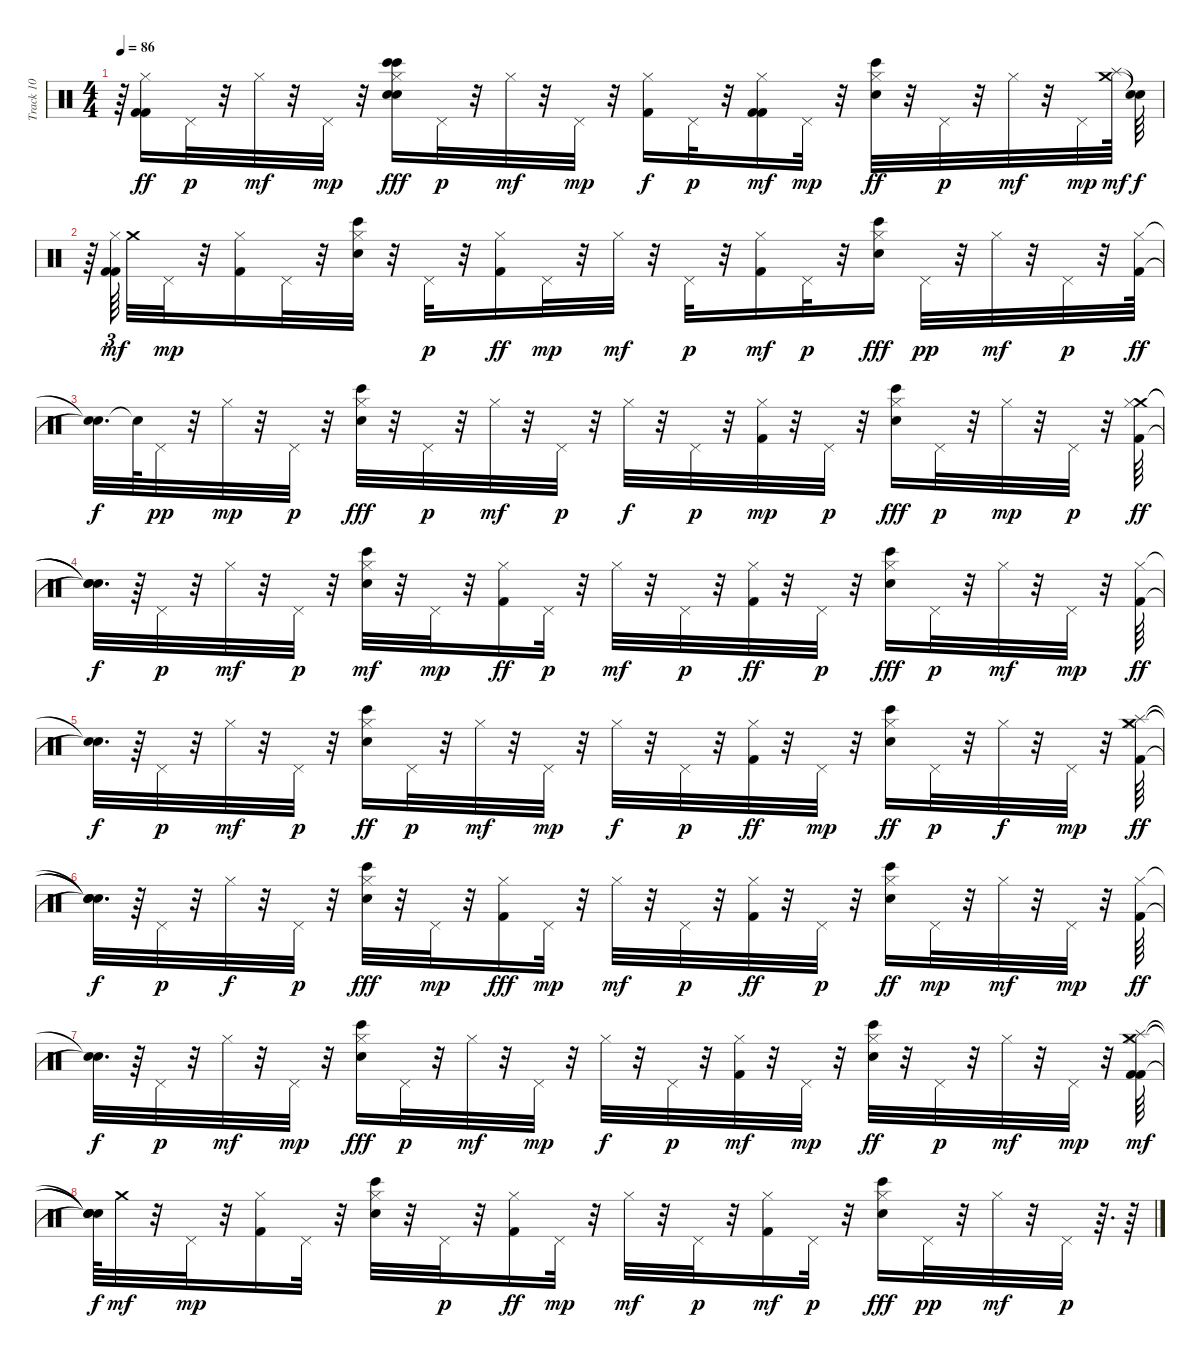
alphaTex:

\track ("Track 10" "Track 10") {instrument percussion}
\staff {score}
\articulation defaults
\ts (4 4)
\tempo 86
\clef neutral
\ks c
r.64{dy p} ("Hi-Hat (closed)" "Kick (hit) 2" "Kick (hit) 2").16{dy ff} "Pedal Hi-Hat (hit)".32{dy p} r.32 "Hi-Hat (closed)".32{dy mf} r.32 "Pedal Hi-Hat (hit)".32{dy mp} r.32 ("Hi-Hat (closed)" "Bongo High (hit)" "Electric Snare (hit)" "Electric Snare (hit)" "Bongo High (hit)").16{dy fff} "Pedal Hi-Hat (hit)".32{dy p} r.32 "Hi-Hat (closed)".32{dy mf} r.32 "Pedal Hi-Hat (hit)".32{dy mp} r.32 ("Hi-Hat (closed)" "Kick (hit) 2").16{dy f} "Pedal Hi-Hat (hit)".32{dy p} r.32 ("Hi-Hat (closed)" "Kick (hit) 2" "Kick (hit) 2").16{dy mf} "Pedal Hi-Hat (hit)".32{dy mp} r.32 ("Hi-Hat (closed)" "Electric Snare (hit)" "Bongo High (hit)").32{dy ff} r.32 "Pedal Hi-Hat (hit)".32{dy p} r.32 "Hi-Hat (closed)".32{dy mf} r.32 "Pedal Hi-Hat (hit)".32{dy mp} ("Splash (hit)" "Crash medium (hit)").64{dy mf} ("Snare (hit)"{t} "Snare (hit)"{t}).64{dy f} |
r.64 ("Hi-Hat (closed)" "Kick (hit) 2" "Kick (hit) 2").64{tu (3 2) dy mf beam splitsecondary} "Crash medium (hit)".32 "Pedal Hi-Hat (hit)".32{dy mp} r.32 ("Hi-Hat (closed)" "Kick (hit) 2").16 "Pedal Hi-Hat (hit)".32 r.32 ("Hi-Hat (closed)" "Electric Snare (hit)" "Bongo High (hit)").32 r.32 "Pedal Hi-Hat (hit)".32{dy p} r.32 ("Hi-Hat (closed)" "Kick (hit) 2").16{dy ff} "Pedal Hi-Hat (hit)".32{dy mp} r.32 "Hi-Hat (closed)".32{dy mf} r.32 "Pedal Hi-Hat (hit)".32{dy p} r.32 ("Hi-Hat (closed)" "Kick (hit) 2").16{dy mf} "Pedal Hi-Hat (hit)".32{dy p} r.32 ("Hi-Hat (closed)" "Electric Snare (hit)" "Bongo High (hit)").16{dy fff} "Pedal Hi-Hat (hit)".32{dy pp} r.32 "Hi-Hat (closed)".32{dy mf} r.32 "Pedal Hi-Hat (hit)".32{dy p} r.32 ("Hi-Hat (closed)" "Kick (hit) 2").64{dy ff} |
("Snare (hit)"{t} "Snare (hit)"{t}).32{d dy f} "Snare (hit)"{t}.64 "Pedal Hi-Hat (hit)".32{dy pp} r.32 "Hi-Hat (closed)".32{dy mp} r.32 "Pedal Hi-Hat (hit)".32{dy p} r.32 ("Hi-Hat (closed)" "Electric Snare (hit)" "Bongo High (hit)").32{dy fff} r.32 "Pedal Hi-Hat (hit)".32{dy p} r.32 "Hi-Hat (closed)".32{dy mf} r.32 "Pedal Hi-Hat (hit)".32{dy p} r.32 "Hi-Hat (closed)".32{dy f} r.32 "Pedal Hi-Hat (hit)".32{dy p} r.32 ("Hi-Hat (closed)" "Kick (hit) 2").32{dy mp} r.32 "Pedal Hi-Hat (hit)".32{dy p} r.32 ("Hi-Hat (closed)" "Electric Snare (hit)" "Bongo High (hit)").16{dy fff} "Pedal Hi-Hat (hit)".32{dy p} r.32 "Hi-Hat (closed)".32{dy mp} r.32 "Pedal Hi-Hat (hit)".32{dy p} r.32 ("Crash medium (hit)" "Hi-Hat (closed)" "Kick (hit) 2").64{dy ff} |
("Snare (hit)"{t} "Snare (hit)"{t} "Snare (hit)"{t}).32{d dy f} r.64 "Pedal Hi-Hat (hit)".32{dy p} r.32 "Hi-Hat (closed)".32{dy mf} r.32 "Pedal Hi-Hat (hit)".32{dy p} r.32 ("Hi-Hat (closed)" "Electric Snare (hit)" "Bongo High (hit)").32{dy mf} r.32 "Pedal Hi-Hat (hit)".32{dy mp} r.32 ("Hi-Hat (closed)" "Kick (hit) 2").16{dy ff} "Pedal Hi-Hat (hit)".32{dy p} r.32 "Hi-Hat (closed)".32{dy mf} r.32 "Pedal Hi-Hat (hit)".32{dy p} r.32 ("Hi-Hat (closed)" "Kick (hit) 2").32{dy ff} r.32 "Pedal Hi-Hat (hit)".32{dy p} r.32 ("Hi-Hat (closed)" "Electric Snare (hit)" "Bongo High (hit)").16{dy fff} "Pedal Hi-Hat (hit)".32{dy p} r.32 "Hi-Hat (closed)".32{dy mf} r.32 "Pedal Hi-Hat (hit)".32{dy mp} r.32 ("Hi-Hat (closed)" "Kick (hit) 2").64{dy ff} |
("Snare (hit)"{t} "Snare (hit)"{t}).32{d dy f} r.64 "Pedal Hi-Hat (hit)".32{dy p} r.32 "Hi-Hat (closed)".32{dy mf} r.32 "Pedal Hi-Hat (hit)".32{dy p} r.32 ("Hi-Hat (closed)" "Electric Snare (hit)" "Bongo High (hit)").16{dy ff} "Pedal Hi-Hat (hit)".32{dy p} r.32 "Hi-Hat (closed)".32{dy mf} r.32 "Pedal Hi-Hat (hit)".32{dy mp} r.32 "Hi-Hat (closed)".32{dy f} r.32 "Pedal Hi-Hat (hit)".32{dy p} r.32 ("Hi-Hat (closed)" "Kick (hit) 2").32{dy ff} r.32 "Pedal Hi-Hat (hit)".32{dy mp} r.32 ("Hi-Hat (closed)" "Electric Snare (hit)" "Bongo High (hit)").16{dy ff} "Pedal Hi-Hat (hit)".32{dy p} r.32 "Hi-Hat (closed)".32{dy f} r.32 "Pedal Hi-Hat (hit)".32{dy mp} r.32 ("Splash (hit)" "Crash medium (hit)" "Hi-Hat (closed)" "Kick (hit) 2").64{dy ff} |
("Snare (hit)"{t} "Snare (hit)"{t} "Snare (hit)"{t} "Snare (hit)"{t}).32{d dy f} r.64 "Pedal Hi-Hat (hit)".32{dy p} r.32 "Hi-Hat (closed)".32{dy f} r.32 "Pedal Hi-Hat (hit)".32{dy p} r.32 ("Hi-Hat (closed)" "Bongo High (hit)" "Electric Snare (hit)").32{dy fff} r.32 "Pedal Hi-Hat (hit)".32{dy mp} r.32 ("Hi-Hat (closed)" "Kick (hit) 2").16{dy fff} "Pedal Hi-Hat (hit)".32{dy mp} r.32 "Hi-Hat (closed)".32{dy mf} r.32 "Pedal Hi-Hat (hit)".32{dy p} r.32 ("Hi-Hat (closed)" "Kick (hit) 2").32{dy ff} r.32 "Pedal Hi-Hat (hit)".32{dy p} r.32 ("Hi-Hat (closed)" "Bongo High (hit)" "Electric Snare (hit)").16{dy ff} "Pedal Hi-Hat (hit)".32{dy mp} r.32 "Hi-Hat (closed)".32{dy mf} r.32 "Pedal Hi-Hat (hit)".32{dy mp} r.32 ("Hi-Hat (closed)" "Kick (hit) 2").64{dy ff} |
("Snare (hit)"{t} "Snare (hit)"{t}).32{d dy f} r.64 "Pedal Hi-Hat (hit)".32{dy p} r.32 "Hi-Hat (closed)".32{dy mf} r.32 "Pedal Hi-Hat (hit)".32{dy mp} r.32 ("Hi-Hat (closed)" "Bongo High (hit)" "Electric Snare (hit)").16{dy fff} "Pedal Hi-Hat (hit)".32{dy p} r.32 "Hi-Hat (closed)".32{dy mf} r.32 "Pedal Hi-Hat (hit)".32{dy mp} r.32 "Hi-Hat (closed)".32{dy f} r.32 "Pedal Hi-Hat (hit)".32{dy p} r.32 ("Hi-Hat (closed)" "Kick (hit) 2").32{dy mf} r.32 "Pedal Hi-Hat (hit)".32{dy mp} r.32 ("Hi-Hat (closed)" "Electric Snare (hit)" "Bongo High (hit)").32{dy ff} r.32 "Pedal Hi-Hat (hit)".32{dy p} r.32 "Hi-Hat (closed)".32{dy mf} r.32 "Pedal Hi-Hat (hit)".32{dy mp} r.32 ("Splash (hit)" "Crash medium (hit)" "Hi-Hat (closed)" "Kick (hit) 2" "Kick (hit) 2").64{dy mf} |
("Snare (hit)"{t} "Snare (hit)"{t} "Snare (hit)"{t} "Snare (hit)"{t}).64{dy f} "Crash medium (hit)".32{dy mf} r.32 "Pedal Hi-Hat (hit)".32{dy mp} r.32 ("Hi-Hat (closed)" "Kick (hit) 2").16 "Pedal Hi-Hat (hit)".32 r.32 ("Hi-Hat (closed)" "Electric Snare (hit)" "Bongo High (hit)").32 r.32 "Pedal Hi-Hat (hit)".32{dy p} r.32 ("Hi-Hat (closed)" "Kick (hit) 2").16{dy ff} "Pedal Hi-Hat (hit)".32{dy mp} r.32 "Hi-Hat (closed)".32{dy mf} r.32 "Pedal Hi-Hat (hit)".32{dy p} r.32 ("Hi-Hat (closed)" "Kick (hit) 2").16{dy mf} "Pedal Hi-Hat (hit)".32{dy p} r.32 ("Hi-Hat (closed)" "Electric Snare (hit)" "Bongo High (hit)").16{dy fff} "Pedal Hi-Hat (hit)".32{dy pp} r.32 "Hi-Hat (closed)".32{dy mf} r.32 "Pedal Hi-Hat (hit)".32{dy p} r.64{d} r.64
